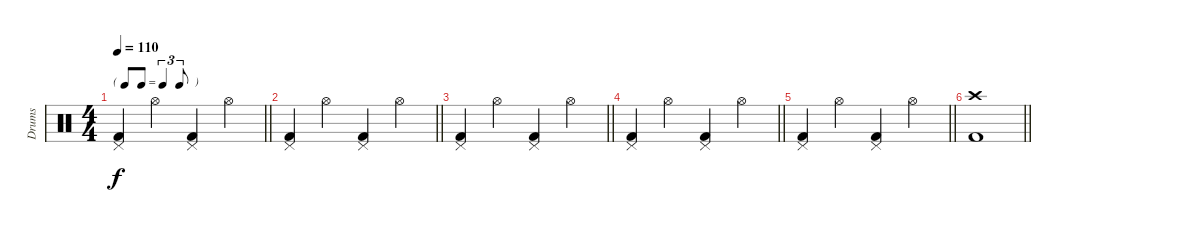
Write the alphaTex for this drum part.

\track ("Drums" "Drums") {instrument percussion}
\staff {score}
\articulation defaults
\ts (4 4)
\tf triplet8th
\tempo 110
\clef neutral
\barLineRight lightlight
\ks c
("Pedal Hi-Hat (hit)" "Kick (hit) 2").4{dy f} "Hi-Hat (open)".4 ("Pedal Hi-Hat (hit)" "Kick (hit) 2").4 "Hi-Hat (open)".4 |
\barLineRight lightlight
("Pedal Hi-Hat (hit)" "Kick (hit) 2").4 "Hi-Hat (open)".4 ("Pedal Hi-Hat (hit)" "Kick (hit) 2").4 "Hi-Hat (open)".4 |
\barLineRight lightlight
("Pedal Hi-Hat (hit)" "Kick (hit) 2").4 "Hi-Hat (open)".4 ("Pedal Hi-Hat (hit)" "Kick (hit) 2").4 "Hi-Hat (open)".4 |
\barLineRight lightlight
("Pedal Hi-Hat (hit)" "Kick (hit) 2").4 "Hi-Hat (open)".4 ("Pedal Hi-Hat (hit)" "Kick (hit) 2").4 "Hi-Hat (open)".4 |
\barLineRight lightlight
("Pedal Hi-Hat (hit)" "Kick (hit) 2").4 "Hi-Hat (open)".4 ("Pedal Hi-Hat (hit)" "Kick (hit) 2").4 "Hi-Hat (open)".4 |
\barLineRight lightlight
("Crash high (hit)" "Kick (hit) 2").1
